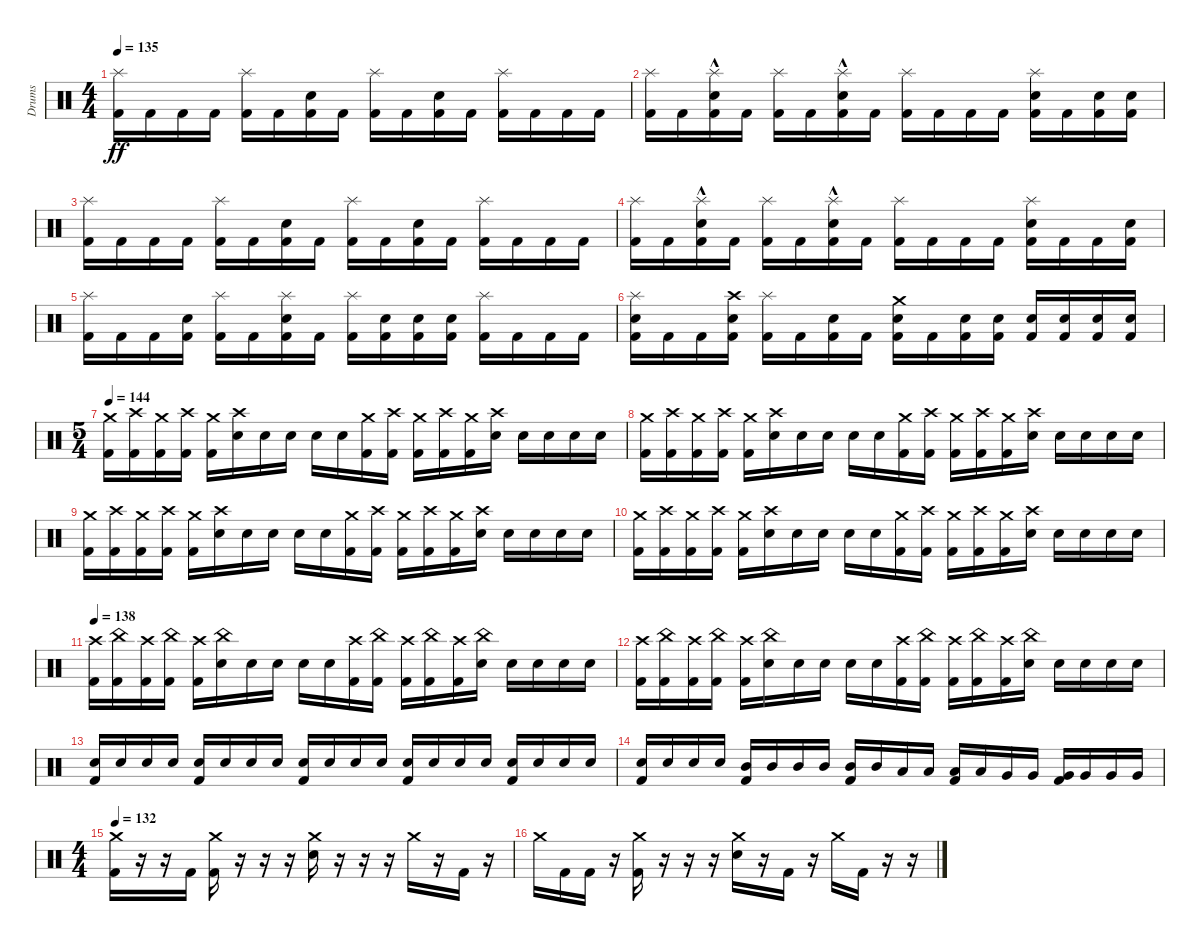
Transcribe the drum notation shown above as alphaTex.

\track ("Drums" "Drums") {instrument percussion}
\staff {score}
\articulation defaults
\ts (4 4)
\tempo 135
\clef neutral
\ks c
("Splash (hit)" "Kick (hit) 2").16{dy ff} "Kick (hit) 2".16 "Kick (hit) 2".16 "Kick (hit) 2".16 ("Splash (hit)" "Kick (hit) 2").16 "Kick (hit) 2".16 ("Electric Snare (hit)" "Kick (hit) 2").16 "Kick (hit) 2".16 ("Splash (hit)" "Kick (hit) 2").16 "Kick (hit) 2".16 ("Electric Snare (hit)" "Kick (hit) 2").16 "Kick (hit) 2".16 ("Splash (hit)" "Kick (hit) 2").16 "Kick (hit) 2".16 "Kick (hit) 2".16 "Kick (hit) 2".16 |
("Splash (hit)" "Kick (hit) 2").16 "Kick (hit) 2".16 ("Splash (hit)"{hac} "Electric Snare (hit)" "Kick (hit) 2").16 "Kick (hit) 2".16 ("Splash (hit)" "Kick (hit) 2").16 "Kick (hit) 2".16 ("Splash (hit)"{hac} "Electric Snare (hit)" "Kick (hit) 2").16 "Kick (hit) 2".16 ("Splash (hit)" "Kick (hit) 2").16 "Kick (hit) 2".16 "Kick (hit) 2".16 "Kick (hit) 2".16 ("Splash (hit)" "Electric Snare (hit)" "Kick (hit) 2").16 "Kick (hit) 2".16 ("Electric Snare (hit)" "Kick (hit) 2").16 ("Electric Snare (hit)" "Kick (hit) 2").16 |
("Splash (hit)" "Kick (hit) 2").16 "Kick (hit) 2".16 "Kick (hit) 2".16 "Kick (hit) 2".16 ("Splash (hit)" "Kick (hit) 2").16 "Kick (hit) 2".16 ("Electric Snare (hit)" "Kick (hit) 2").16 "Kick (hit) 2".16 ("Splash (hit)" "Kick (hit) 2").16 "Kick (hit) 2".16 ("Electric Snare (hit)" "Kick (hit) 2").16 "Kick (hit) 2".16 ("Splash (hit)" "Kick (hit) 2").16 "Kick (hit) 2".16 "Kick (hit) 2".16 "Kick (hit) 2".16 |
("Splash (hit)" "Kick (hit) 2").16 "Kick (hit) 2".16 ("Splash (hit)"{hac} "Electric Snare (hit)" "Kick (hit) 2").16 "Kick (hit) 2".16 ("Splash (hit)" "Kick (hit) 2").16 "Kick (hit) 2".16 ("Splash (hit)"{hac} "Electric Snare (hit)" "Kick (hit) 2").16 "Kick (hit) 2".16 ("Splash (hit)" "Kick (hit) 2").16 "Kick (hit) 2".16 "Kick (hit) 2".16 "Kick (hit) 2".16 ("Splash (hit)" "Electric Snare (hit)" "Kick (hit) 2").16 "Kick (hit) 2".16 "Kick (hit) 2".16 ("Electric Snare (hit)" "Kick (hit) 2").16 |
("Splash (hit)" "Kick (hit) 2").16 "Kick (hit) 2".16 "Kick (hit) 2".16 ("Electric Snare (hit)" "Kick (hit) 2").16 ("Splash (hit)" "Kick (hit) 2").16 "Kick (hit) 2".16 ("Splash (hit)" "Electric Snare (hit)" "Kick (hit) 2").16 "Kick (hit) 2".16 ("Splash (hit)" "Kick (hit) 2").16 ("Electric Snare (hit)" "Kick (hit) 2").16 ("Electric Snare (hit)" "Kick (hit) 2").16 ("Electric Snare (hit)" "Kick (hit) 2").16 ("Splash (hit)" "Kick (hit) 2").16 "Kick (hit) 2".16 "Kick (hit) 2".16 "Kick (hit) 2".16 |
("Splash (hit)" "Electric Snare (hit)" "Kick (hit) 2").16 "Kick (hit) 2".16 "Kick (hit) 2".16 ("Crash high (hit)" "Electric Snare (hit)" "Kick (hit) 2").16 ("Splash (hit)" "Kick (hit) 2").16 "Kick (hit) 2".16 ("Electric Snare (hit)" "Kick (hit) 2").16 "Kick (hit) 2".16 ("Crash medium (hit)" "Electric Snare (hit)" "Kick (hit) 2").16 "Kick (hit) 2".16 ("Electric Snare (hit)" "Kick (hit) 2").16 ("Electric Snare (hit)" "Kick (hit) 2").16 ("Electric Snare (hit)" "Kick (hit) 2").16 ("Electric Snare (hit)" "Kick (hit) 2").16 ("Electric Snare (hit)" "Kick (hit) 2").16 ("Electric Snare (hit)" "Kick (hit) 2").16 |
\ts (5 4)
\tempo 144
("Crash medium (hit)" "Kick (hit) 2").16 ("Crash high (hit)" "Kick (hit) 2").16 ("Crash medium (hit)" "Kick (hit) 2").16 ("Crash high (hit)" "Kick (hit) 2").16 ("Crash medium (hit)" "Kick (hit) 2").16 ("Crash high (hit)" "Electric Snare (hit)").16 "Electric Snare (hit)".16 "Electric Snare (hit)".16 "Electric Snare (hit)".16 "Electric Snare (hit)".16 ("Crash medium (hit)" "Kick (hit) 2").16 ("Crash high (hit)" "Kick (hit) 2").16 ("Crash medium (hit)" "Kick (hit) 2").16 ("Crash high (hit)" "Kick (hit) 2").16 ("Crash medium (hit)" "Kick (hit) 2").16 ("Crash high (hit)" "Electric Snare (hit)").16 "Electric Snare (hit)".16 "Electric Snare (hit)".16 "Electric Snare (hit)".16 "Electric Snare (hit)".16 |
("Crash medium (hit)" "Kick (hit) 2").16 ("Crash high (hit)" "Kick (hit) 2").16 ("Crash medium (hit)" "Kick (hit) 2").16 ("Crash high (hit)" "Kick (hit) 2").16 ("Crash medium (hit)" "Kick (hit) 2").16 ("Crash high (hit)" "Electric Snare (hit)").16 "Electric Snare (hit)".16 "Electric Snare (hit)".16 "Electric Snare (hit)".16 "Electric Snare (hit)".16 ("Crash medium (hit)" "Kick (hit) 2").16 ("Crash high (hit)" "Kick (hit) 2").16 ("Crash medium (hit)" "Kick (hit) 2").16 ("Crash high (hit)" "Kick (hit) 2").16 ("Crash medium (hit)" "Kick (hit) 2").16 ("Crash high (hit)" "Electric Snare (hit)").16 "Electric Snare (hit)".16 "Electric Snare (hit)".16 "Electric Snare (hit)".16 "Electric Snare (hit)".16 |
("Crash medium (hit)" "Kick (hit) 2").16 ("Crash high (hit)" "Kick (hit) 2").16 ("Crash medium (hit)" "Kick (hit) 2").16 ("Crash high (hit)" "Kick (hit) 2").16 ("Crash medium (hit)" "Kick (hit) 2").16 ("Crash high (hit)" "Electric Snare (hit)").16 "Electric Snare (hit)".16 "Electric Snare (hit)".16 "Electric Snare (hit)".16 "Electric Snare (hit)".16 ("Crash medium (hit)" "Kick (hit) 2").16 ("Crash high (hit)" "Kick (hit) 2").16 ("Crash medium (hit)" "Kick (hit) 2").16 ("Crash high (hit)" "Kick (hit) 2").16 ("Crash medium (hit)" "Kick (hit) 2").16 ("Crash high (hit)" "Electric Snare (hit)").16 "Electric Snare (hit)".16 "Electric Snare (hit)".16 "Electric Snare (hit)".16 "Electric Snare (hit)".16 |
("Crash medium (hit)" "Kick (hit) 2").16 ("Crash high (hit)" "Kick (hit) 2").16 ("Crash medium (hit)" "Kick (hit) 2").16 ("Crash high (hit)" "Kick (hit) 2").16 ("Crash medium (hit)" "Kick (hit) 2").16 ("Crash high (hit)" "Electric Snare (hit)").16 "Electric Snare (hit)".16 "Electric Snare (hit)".16 "Electric Snare (hit)".16 "Electric Snare (hit)".16 ("Crash medium (hit)" "Kick (hit) 2").16 ("Crash high (hit)" "Kick (hit) 2").16 ("Crash medium (hit)" "Kick (hit) 2").16 ("Crash high (hit)" "Kick (hit) 2").16 ("Crash medium (hit)" "Kick (hit) 2").16 ("Crash high (hit)" "Electric Snare (hit)").16 "Electric Snare (hit)".16 "Electric Snare (hit)".16 "Electric Snare (hit)".16 "Electric Snare (hit)".16 |
\tempo 138
("Crash high (hit)" "Kick (hit) 2").16 ("China (hit)" "Kick (hit) 2").16 ("Crash high (hit)" "Kick (hit) 2").16 ("China (hit)" "Kick (hit) 2").16 ("Crash high (hit)" "Kick (hit) 2").16 ("China (hit)" "Electric Snare (hit)").16 "Electric Snare (hit)".16 "Electric Snare (hit)".16 "Electric Snare (hit)".16 "Electric Snare (hit)".16 ("Crash high (hit)" "Kick (hit) 2").16 ("China (hit)" "Kick (hit) 2").16 ("Crash high (hit)" "Kick (hit) 2").16 ("China (hit)" "Kick (hit) 2").16 ("Crash high (hit)" "Kick (hit) 2").16 ("China (hit)" "Electric Snare (hit)").16 "Electric Snare (hit)".16 "Electric Snare (hit)".16 "Electric Snare (hit)".16 "Electric Snare (hit)".16 |
("Crash high (hit)" "Kick (hit) 2").16 ("China (hit)" "Kick (hit) 2").16 ("Crash high (hit)" "Kick (hit) 2").16 ("China (hit)" "Kick (hit) 2").16 ("Crash high (hit)" "Kick (hit) 2").16 ("China (hit)" "Electric Snare (hit)").16 "Electric Snare (hit)".16 "Electric Snare (hit)".16 "Electric Snare (hit)".16 "Electric Snare (hit)".16 ("Crash high (hit)" "Kick (hit) 2").16 ("China (hit)" "Kick (hit) 2").16 ("Crash high (hit)" "Kick (hit) 2").16 ("China (hit)" "Kick (hit) 2").16 ("Crash high (hit)" "Kick (hit) 2").16 ("China (hit)" "Electric Snare (hit)").16 "Electric Snare (hit)".16 "Electric Snare (hit)".16 "Electric Snare (hit)".16 "Electric Snare (hit)".16 |
("Electric Snare (hit)" "Kick (hit) 2").16{volume 5} "Electric Snare (hit)".16{volume 13} "Electric Snare (hit)".16 "Electric Snare (hit)".16 ("Electric Snare (hit)" "Kick (hit) 2").16 "Electric Snare (hit)".16 "Electric Snare (hit)".16 "Electric Snare (hit)".16 ("Electric Snare (hit)" "Kick (hit) 2").16 "Electric Snare (hit)".16 "Electric Snare (hit)".16 "Electric Snare (hit)".16 ("Electric Snare (hit)" "Kick (hit) 2").16 "Electric Snare (hit)".16 "Electric Snare (hit)".16 "Electric Snare (hit)".16 ("Electric Snare (hit)" "Kick (hit) 2").16 "Electric Snare (hit)".16 "Electric Snare (hit)".16 "Electric Snare (hit)".16 |
("Electric Snare (hit)" "Kick (hit) 2").16 "Electric Snare (hit)".16 "Electric Snare (hit)".16 "Electric Snare (hit)".16 ("Mid Tom (hit)" "Kick (hit) 2").16 "Mid Tom (hit)".16 "Mid Tom (hit)".16 "Mid Tom (hit)".16 ("Mid Tom (hit)" "Kick (hit) 2").16 "Mid Tom (hit)".16 "Low Tom (hit)".16 "Low Tom (hit)".16 ("Low Tom (hit)" "Kick (hit) 2").16 "Low Tom (hit)".16 "Very Low Tom (hit)".16 "Very Low Tom (hit)".16 ("Very Low Tom (hit)" "Kick (hit) 2").16 "Very Low Tom (hit)".16 "Very Low Tom (hit)".16 "Very Low Tom (hit)".16 |
\ts (4 4)
\tempo 132
("Crash medium (hit)" "Kick (hit) 2").16 r.16 r.16 "Kick (hit) 2".16 ("Crash medium (hit)" "Kick (hit) 2").16 r.16 r.16 r.16 ("Crash medium (hit)" "Electric Snare (hit)").16 r.16 r.16 r.16 "Crash medium (hit)".16 r.16 "Kick (hit) 2".16 r.16 |
"Crash medium (hit)".16 "Kick (hit) 2".16 "Kick (hit) 2".16 r.16 ("Crash medium (hit)" "Kick (hit) 2").16 r.16 r.16 r.16 ("Crash medium (hit)" "Electric Snare (hit)").16 r.16 "Kick (hit) 2".16 r.16 "Crash medium (hit)".16 "Kick (hit) 2".16 r.16 r.16
